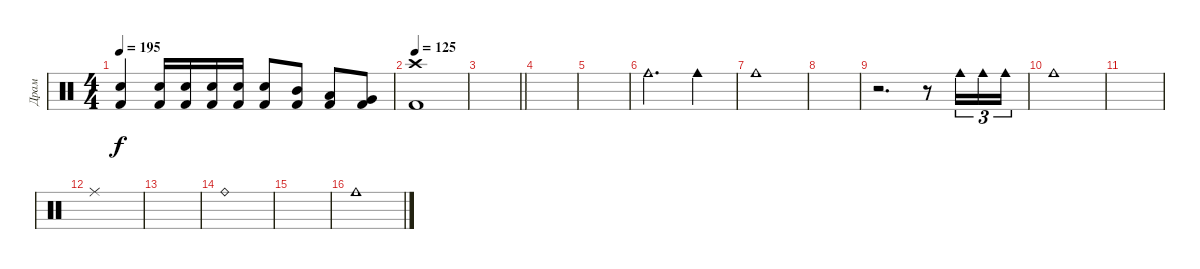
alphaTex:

\track ("Драм" "Драм") {instrument percussion}
\staff {score}
\articulation defaults
\ts (4 4)
\tempo 195
\clef neutral
\ks c
("Snare (hit) 2" "Kick (hit) 2").4{dy f} ("Snare (hit) 2" "Kick (hit) 2").16 ("Snare (hit) 2" "Kick (hit) 2").16 ("Snare (hit) 2" "Kick (hit) 2").16 ("Snare (hit) 2" "Kick (hit) 2").16 ("Snare (hit) 2" "Kick (hit) 2").8 ("Mid Tom (hit)" "Kick (hit) 2").8 ("Low Tom (hit)" "Kick (hit) 2").8 ("Very Low Tom (hit)" "Kick (hit) 2").8 |
\tempo 125
("Kick (hit) 2" "Crash high (hit)").1 |
\barLineRight lightlight
|
|
|
"Cowbell medium (hit)".2{d} "Cowbell medium (hit)".4 |
"Cowbell medium (hit)".1 |
|
r.2{d} r.8 "Cowbell medium (hit)".16{tu (3 2)} "Cowbell medium (hit)".16{tu (3 2)} "Cowbell medium (hit)".16{tu (3 2)} |
"Cowbell medium (hit)".1 |
|
"Ride (middle)".1 |
|
"Ride (bell)".1 |
|
"Cowbell medium (hit)".1
